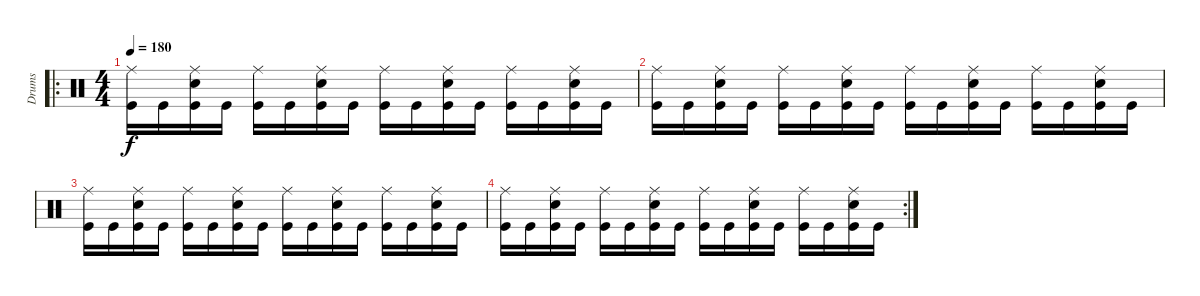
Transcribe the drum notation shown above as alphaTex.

\track ("Drums" "Drums") {instrument percussion}
\staff {score}
\articulation defaults
\ro
\ts (4 4)
\tempo 180
\clef neutral
\ks c
("Ride (middle)" "Kick (hit)").16{dy f} "Kick (hit)".16 ("Ride (middle)" "Snare (hit) 2" "Kick (hit)").16 "Kick (hit)".16 ("Ride (middle)" "Kick (hit)").16 "Kick (hit)".16 ("Ride (middle)" "Snare (hit) 2" "Kick (hit)").16 "Kick (hit)".16 ("Ride (middle)" "Kick (hit)").16 "Kick (hit)".16 ("Ride (middle)" "Snare (hit) 2" "Kick (hit)").16 "Kick (hit)".16 ("Ride (middle)" "Kick (hit)").16 "Kick (hit)".16 ("Ride (middle)" "Snare (hit) 2" "Kick (hit)").16 "Kick (hit)".16 |
("Ride (middle)" "Kick (hit)").16 "Kick (hit)".16 ("Ride (middle)" "Snare (hit) 2" "Kick (hit)").16 "Kick (hit)".16 ("Ride (middle)" "Kick (hit)").16 "Kick (hit)".16 ("Ride (middle)" "Snare (hit) 2" "Kick (hit)").16 "Kick (hit)".16 ("Ride (middle)" "Kick (hit)").16 "Kick (hit)".16 ("Ride (middle)" "Snare (hit) 2" "Kick (hit)").16 "Kick (hit)".16 ("Ride (middle)" "Kick (hit)").16 "Kick (hit)".16 ("Ride (middle)" "Snare (hit) 2" "Kick (hit)").16 "Kick (hit)".16 |
("Ride (middle)" "Kick (hit)").16 "Kick (hit)".16 ("Ride (middle)" "Snare (hit) 2" "Kick (hit)").16 "Kick (hit)".16 ("Ride (middle)" "Kick (hit)").16 "Kick (hit)".16 ("Ride (middle)" "Snare (hit) 2" "Kick (hit)").16 "Kick (hit)".16 ("Ride (middle)" "Kick (hit)").16 "Kick (hit)".16 ("Ride (middle)" "Snare (hit) 2" "Kick (hit)").16 "Kick (hit)".16 ("Ride (middle)" "Kick (hit)").16 "Kick (hit)".16 ("Ride (middle)" "Snare (hit) 2" "Kick (hit)").16 "Kick (hit)".16 |
\rc 2
("Ride (middle)" "Kick (hit)").16 "Kick (hit)".16 ("Ride (middle)" "Snare (hit) 2" "Kick (hit)").16 "Kick (hit)".16 ("Ride (middle)" "Kick (hit)").16 "Kick (hit)".16 ("Ride (middle)" "Snare (hit) 2" "Kick (hit)").16 "Kick (hit)".16 ("Ride (middle)" "Kick (hit)").16 "Kick (hit)".16 ("Ride (middle)" "Snare (hit) 2" "Kick (hit)").16 "Kick (hit)".16 ("Ride (middle)" "Kick (hit)").16 "Kick (hit)".16 ("Ride (middle)" "Snare (hit) 2" "Kick (hit)").16 "Kick (hit)".16
